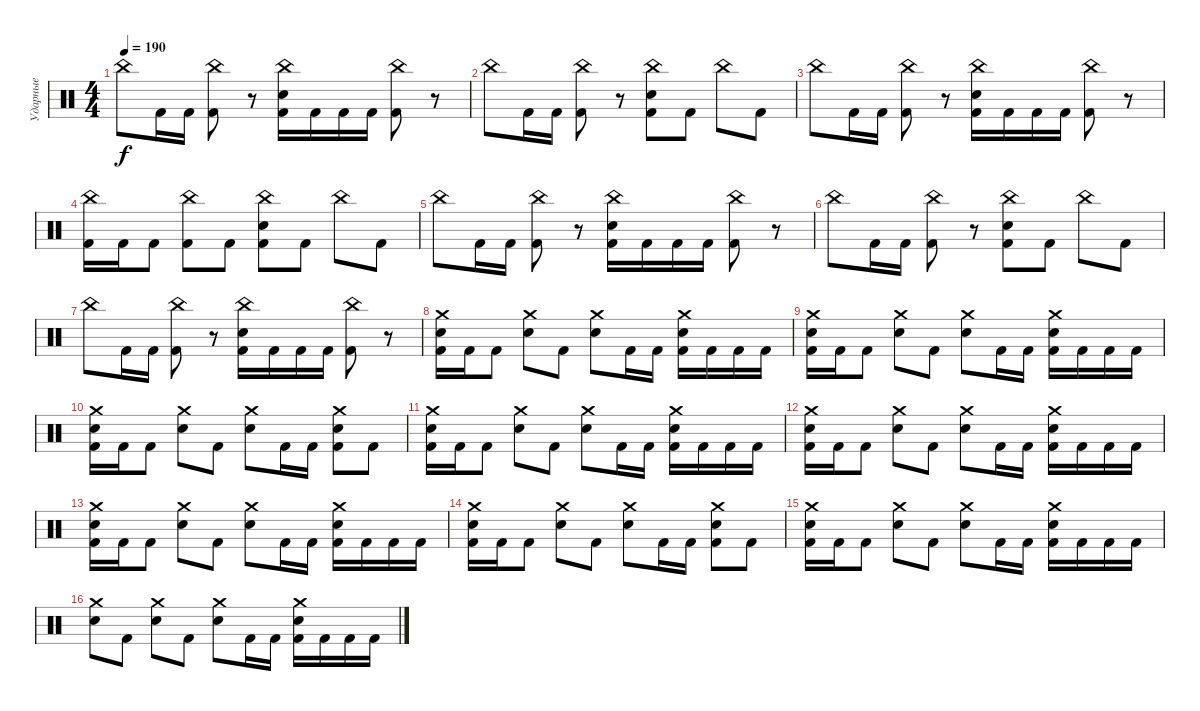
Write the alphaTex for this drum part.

\track ("Ударные" "Ударные") {instrument percussion}
\staff {score}
\articulation defaults
\ts (4 4)
\tempo 190
\clef neutral
\ks c "China (hit)".8{dy f} "Kick (hit) 2".16 "Kick (hit) 2".16
("China (hit)" "Kick (hit) 2").8 r.8 ("China (hit)" "Snare (hit) 2" "Kick (hit) 2").16 "Kick (hit) 2".16 "Kick (hit) 2".16 "Kick (hit) 2".16 ("China (hit)" "Kick (hit) 2").8 r.8 |
"China (hit)".8 "Kick (hit) 2".16 "Kick (hit) 2".16 ("China (hit)" "Kick (hit) 2").8 r.8 ("China (hit)" "Snare (hit) 2" "Kick (hit) 2").8 "Kick (hit) 2".8 "China (hit)".8 "Kick (hit) 2".8 |
"China (hit)".8 "Kick (hit) 2".16 "Kick (hit) 2".16 ("China (hit)" "Kick (hit) 2").8 r.8 ("China (hit)" "Snare (hit) 2" "Kick (hit) 2").16 "Kick (hit) 2".16 "Kick (hit) 2".16 "Kick (hit) 2".16 ("China (hit)" "Kick (hit) 2").8 r.8 |
("China (hit)" "Kick (hit) 2").16 "Kick (hit) 2".16 "Kick (hit) 2".8 ("China (hit)" "Kick (hit) 2").8 "Kick (hit) 2".8 ("China (hit)" "Snare (hit) 2" "Kick (hit) 2").8 "Kick (hit) 2".8 "China (hit)".8 "Kick (hit) 2".8 |
"China (hit)".8 "Kick (hit) 2".16 "Kick (hit) 2".16 ("China (hit)" "Kick (hit) 2").8 r.8 ("China (hit)" "Snare (hit) 2" "Kick (hit) 2").16 "Kick (hit) 2".16 "Kick (hit) 2".16 "Kick (hit) 2".16 ("China (hit)" "Kick (hit) 2").8 r.8 |
"China (hit)".8 "Kick (hit) 2".16 "Kick (hit) 2".16 ("China (hit)" "Kick (hit) 2").8 r.8 ("China (hit)" "Snare (hit) 2" "Kick (hit) 2").8 "Kick (hit) 2".8 "China (hit)".8 "Kick (hit) 2".8 |
"China (hit)".8 "Kick (hit) 2".16 "Kick (hit) 2".16 ("China (hit)" "Kick (hit) 2").8 r.8 ("China (hit)" "Snare (hit) 2" "Kick (hit) 2").16 "Kick (hit) 2".16 "Kick (hit) 2".16 "Kick (hit) 2".16 ("China (hit)" "Kick (hit) 2").8 r.8 |
("Crash medium (hit)" "Snare (hit) 2" "Kick (hit) 2").16 "Kick (hit) 2".16 "Kick (hit) 2".8 ("Crash medium (hit)" "Snare (hit) 2").8 "Kick (hit) 2".8 ("Crash medium (hit)" "Snare (hit) 2").8 "Kick (hit) 2".16 "Kick (hit) 2".16 ("Crash medium (hit)" "Snare (hit) 2" "Kick (hit) 2").16 "Kick (hit) 2".16 "Kick (hit) 2".16 "Kick (hit) 2".16 |
("Crash medium (hit)" "Snare (hit) 2" "Kick (hit) 2").16 "Kick (hit) 2".16 "Kick (hit) 2".8 ("Crash medium (hit)" "Snare (hit) 2").8 "Kick (hit) 2".8 ("Crash medium (hit)" "Snare (hit) 2").8 "Kick (hit) 2".16 "Kick (hit) 2".16 ("Crash medium (hit)" "Snare (hit) 2" "Kick (hit) 2").16 "Kick (hit) 2".16 "Kick (hit) 2".16 "Kick (hit) 2".16 |
("Crash medium (hit)" "Snare (hit) 2" "Kick (hit) 2").16 "Kick (hit) 2".16 "Kick (hit) 2".8 ("Crash medium (hit)" "Snare (hit) 2").8 "Kick (hit) 2".8 ("Crash medium (hit)" "Snare (hit) 2").8 "Kick (hit) 2".16 "Kick (hit) 2".16 ("Crash medium (hit)" "Snare (hit) 2" "Kick (hit) 2").8 "Kick (hit) 2".8 |
("Crash medium (hit)" "Snare (hit) 2" "Kick (hit) 2").16 "Kick (hit) 2".16 "Kick (hit) 2".8 ("Crash medium (hit)" "Snare (hit) 2").8 "Kick (hit) 2".8 ("Crash medium (hit)" "Snare (hit) 2").8 "Kick (hit) 2".16 "Kick (hit) 2".16 ("Crash medium (hit)" "Snare (hit) 2" "Kick (hit) 2").16 "Kick (hit) 2".16 "Kick (hit) 2".16 "Kick (hit) 2".16 |
("Crash medium (hit)" "Snare (hit) 2" "Kick (hit) 2").16 "Kick (hit) 2".16 "Kick (hit) 2".8 ("Crash medium (hit)" "Snare (hit) 2").8 "Kick (hit) 2".8 ("Crash medium (hit)" "Snare (hit) 2").8 "Kick (hit) 2".16 "Kick (hit) 2".16 ("Crash medium (hit)" "Snare (hit) 2" "Kick (hit) 2").16 "Kick (hit) 2".16 "Kick (hit) 2".16 "Kick (hit) 2".16 |
("Crash medium (hit)" "Snare (hit) 2" "Kick (hit) 2").16 "Kick (hit) 2".16 "Kick (hit) 2".8 ("Crash medium (hit)" "Snare (hit) 2").8 "Kick (hit) 2".8 ("Crash medium (hit)" "Snare (hit) 2").8 "Kick (hit) 2".16 "Kick (hit) 2".16 ("Crash medium (hit)" "Snare (hit) 2" "Kick (hit) 2").16 "Kick (hit) 2".16 "Kick (hit) 2".16 "Kick (hit) 2".16 |
("Crash medium (hit)" "Snare (hit) 2" "Kick (hit) 2").16 "Kick (hit) 2".16 "Kick (hit) 2".8 ("Crash medium (hit)" "Snare (hit) 2").8 "Kick (hit) 2".8 ("Crash medium (hit)" "Snare (hit) 2").8 "Kick (hit) 2".16 "Kick (hit) 2".16 ("Crash medium (hit)" "Snare (hit) 2" "Kick (hit) 2").8 "Kick (hit) 2".8 |
("Crash medium (hit)" "Snare (hit) 2" "Kick (hit) 2").16 "Kick (hit) 2".16 "Kick (hit) 2".8 ("Crash medium (hit)" "Snare (hit) 2").8 "Kick (hit) 2".8 ("Crash medium (hit)" "Snare (hit) 2").8 "Kick (hit) 2".16 "Kick (hit) 2".16 ("Crash medium (hit)" "Snare (hit) 2" "Kick (hit) 2").16 "Kick (hit) 2".16 "Kick (hit) 2".16 "Kick (hit) 2".16 |
("Crash medium (hit)" "Snare (hit) 2").8 "Kick (hit) 2".8 ("Crash medium (hit)" "Snare (hit) 2").8 "Kick (hit) 2".8 ("Crash medium (hit)" "Snare (hit) 2").8 "Kick (hit) 2".16 "Kick (hit) 2".16 ("Crash medium (hit)" "Snare (hit) 2" "Kick (hit) 2").16 "Kick (hit) 2".16 "Kick (hit) 2".16 "Kick (hit) 2".16
